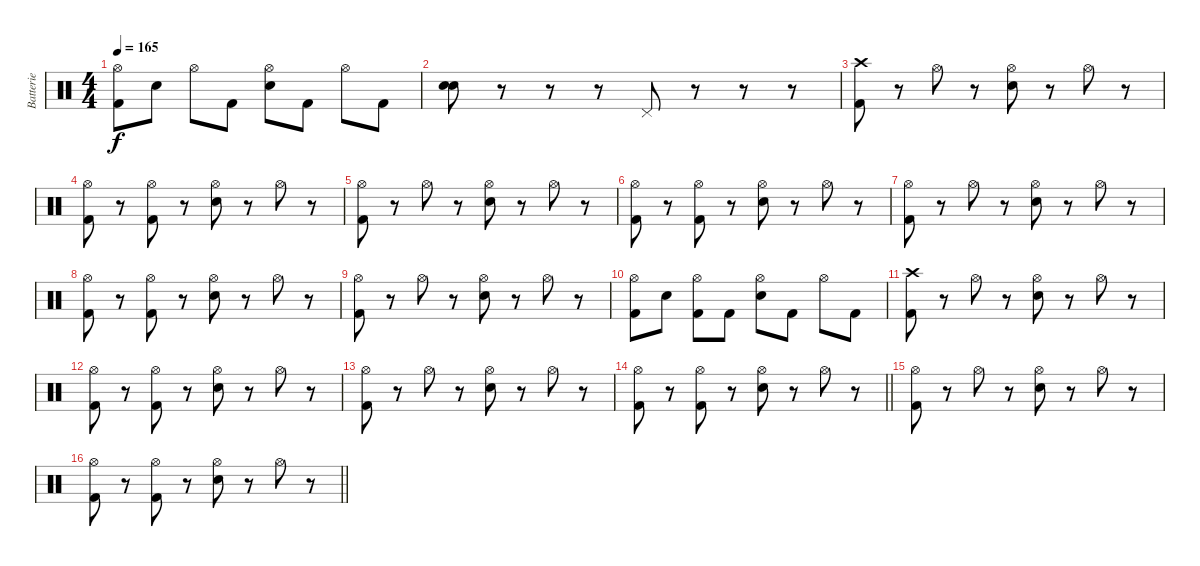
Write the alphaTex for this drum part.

\track ("Batterie" "Batterie") {instrument percussion}
\staff {score}
\articulation defaults
\ts (4 4)
\tempo 165
\clef neutral
\ks c
("Hi-Hat (open)" "Kick (hit) 2").8{dy f} "Electric Snare (hit)".8 "Hi-Hat (open)".8 "Kick (hit) 2".8 ("Hi-Hat (open)" "Electric Snare (hit)").8 "Kick (hit) 2".8 "Hi-Hat (open)".8 "Kick (hit) 2".8 |
("Electric Snare (hit)" "Electric Snare (hit)").8{bu 120} r.8 r.8 r.8 "Pedal Hi-Hat (hit)".8 r.8 r.8 r.8 |
("Crash high (hit)" "Kick (hit) 2").8 r.8 "Hi-Hat (open)".8 r.8 ("Hi-Hat (open)" "Electric Snare (hit)").8 r.8 "Hi-Hat (open)".8 r.8 |
("Hi-Hat (open)" "Kick (hit) 2").8 r.8 ("Hi-Hat (open)" "Kick (hit) 2").8 r.8 ("Hi-Hat (open)" "Electric Snare (hit)").8 r.8 "Hi-Hat (open)".8 r.8 |
("Hi-Hat (open)" "Kick (hit) 2").8 r.8 "Hi-Hat (open)".8 r.8 ("Hi-Hat (open)" "Electric Snare (hit)").8 r.8 "Hi-Hat (open)".8 r.8 |
("Hi-Hat (open)" "Kick (hit) 2").8 r.8 ("Hi-Hat (open)" "Kick (hit) 2").8 r.8 ("Hi-Hat (open)" "Electric Snare (hit)").8 r.8 "Hi-Hat (open)".8 r.8 |
("Hi-Hat (open)" "Kick (hit) 2").8 r.8 "Hi-Hat (open)".8 r.8 ("Hi-Hat (open)" "Electric Snare (hit)").8 r.8 "Hi-Hat (open)".8 r.8 |
("Hi-Hat (open)" "Kick (hit) 2").8 r.8 ("Hi-Hat (open)" "Kick (hit) 2").8 r.8 ("Hi-Hat (open)" "Electric Snare (hit)").8 r.8 "Hi-Hat (open)".8 r.8 |
("Hi-Hat (open)" "Kick (hit) 2").8 r.8 "Hi-Hat (open)".8 r.8 ("Hi-Hat (open)" "Electric Snare (hit)").8 r.8 "Hi-Hat (open)".8 r.8 |
("Hi-Hat (open)" "Kick (hit) 2").8 "Electric Snare (hit)".8 ("Hi-Hat (open)" "Kick (hit) 2").8 "Kick (hit) 2".8 ("Hi-Hat (open)" "Electric Snare (hit)").8 "Kick (hit) 2".8 "Hi-Hat (open)".8 "Kick (hit) 2".8 |
("Crash high (hit)" "Kick (hit) 2").8 r.8 "Hi-Hat (open)".8 r.8 ("Hi-Hat (open)" "Electric Snare (hit)").8 r.8 "Hi-Hat (open)".8 r.8 |
("Hi-Hat (open)" "Kick (hit) 2").8 r.8 ("Hi-Hat (open)" "Kick (hit) 2").8 r.8 ("Hi-Hat (open)" "Electric Snare (hit)").8 r.8 "Hi-Hat (open)".8 r.8 |
("Hi-Hat (open)" "Kick (hit) 2").8 r.8 "Hi-Hat (open)".8 r.8 ("Hi-Hat (open)" "Electric Snare (hit)").8 r.8 "Hi-Hat (open)".8 r.8 |
\barLineRight lightlight
("Hi-Hat (open)" "Kick (hit) 2").8 r.8 ("Hi-Hat (open)" "Kick (hit) 2").8 r.8 ("Hi-Hat (open)" "Electric Snare (hit)").8 r.8 "Hi-Hat (open)".8 r.8 |
("Hi-Hat (open)" "Kick (hit) 2").8 r.8 "Hi-Hat (open)".8 r.8 ("Hi-Hat (open)" "Electric Snare (hit)").8 r.8 "Hi-Hat (open)".8 r.8 |
\barLineRight lightlight
("Hi-Hat (open)" "Kick (hit) 2").8 r.8 ("Hi-Hat (open)" "Kick (hit) 2").8 r.8 ("Hi-Hat (open)" "Electric Snare (hit)").8 r.8 "Hi-Hat (open)".8 r.8
